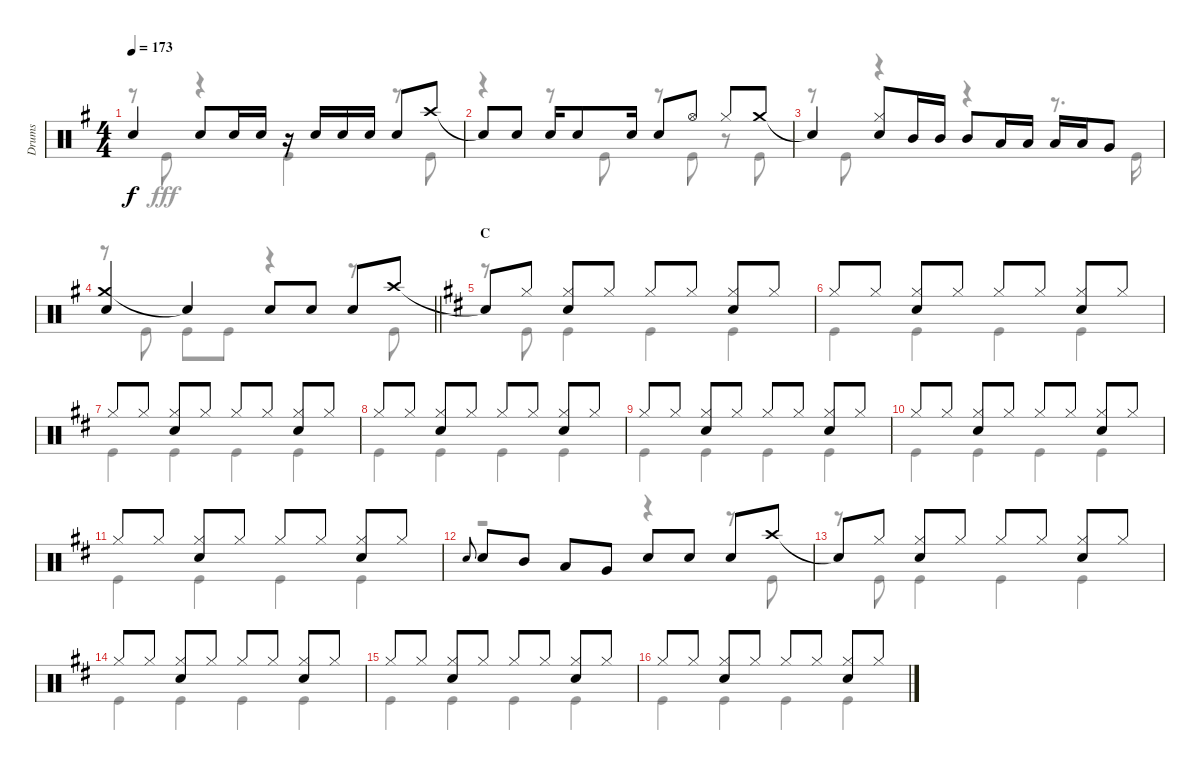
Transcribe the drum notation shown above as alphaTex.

\track ("Drums" "Drums") {instrument percussion}
\staff {score}
\articulation defaults
\voice
\ts (4 4)
\tempo 173
\clef neutral
\ks g "Snare (hit)"{t}.4{dy f} "Snare (hit) 2".8 "Snare (hit) 2".16 "Snare (hit) 2".16
r.16 "Snare (hit) 2".16 "Snare (hit) 2".16 "Snare (hit) 2".16 "Snare (hit) 2".8 "Crash high (hit)".8 |
"Snare (hit)"{t}.8 "Snare (hit) 2".8 "Snare (hit) 2".16 "Snare (hit) 2".8 "Snare (hit) 2".16 "Snare (hit) 2".8 "Hi-Hat (open)".8 "Hi-Hat (closed)".8 "Crash medium (hit)".8 |
"Snare (hit)"{t}.4 ("Hi-Hat (closed)" "Snare (hit) 2").8 "Mid Tom (hit)".16 "Mid Tom (hit)".16 "Mid Tom (hit)".8 "Low Tom (hit)".16 "Low Tom (hit)".16 "Low Tom (hit)".16 "Low Tom (hit)".16 "Very Low Tom (hit)".8 |
\barLineRight lightlight
("Crash medium (hit)" "Snare (hit) 2").4 "Snare (hit)"{t}.4 "Snare (hit) 2".8 "Snare (hit) 2".8 "Snare (hit) 2".8 "Crash high (hit)".8 |
\section ("" "C")
\ks d "Snare (hit)"{t}.8 "Hi-Hat (closed)".8
("Hi-Hat (closed)" "Snare (hit) 2").8 "Hi-Hat (closed)".8 "Hi-Hat (closed)".8 "Hi-Hat (closed)".8 ("Hi-Hat (closed)" "Snare (hit) 2").8 "Hi-Hat (closed)".8 |
"Hi-Hat (closed)".8 "Hi-Hat (closed)".8 ("Hi-Hat (closed)" "Snare (hit) 2").8 "Hi-Hat (closed)".8 "Hi-Hat (closed)".8 "Hi-Hat (closed)".8 ("Hi-Hat (closed)" "Snare (hit) 2").8 "Hi-Hat (closed)".8 |
"Hi-Hat (closed)".8 "Hi-Hat (closed)".8 ("Hi-Hat (closed)" "Snare (hit) 2").8 "Hi-Hat (closed)".8 "Hi-Hat (closed)".8 "Hi-Hat (closed)".8 ("Hi-Hat (closed)" "Snare (hit) 2").8 "Hi-Hat (closed)".8 |
"Hi-Hat (closed)".8 "Hi-Hat (closed)".8 ("Hi-Hat (closed)" "Snare (hit) 2").8 "Hi-Hat (closed)".8 "Hi-Hat (closed)".8 "Hi-Hat (closed)".8 ("Hi-Hat (closed)" "Snare (hit) 2").8 "Hi-Hat (closed)".8 |
"Hi-Hat (closed)".8 "Hi-Hat (closed)".8 ("Hi-Hat (closed)" "Snare (hit) 2").8 "Hi-Hat (closed)".8 "Hi-Hat (closed)".8 "Hi-Hat (closed)".8 ("Hi-Hat (closed)" "Snare (hit) 2").8 "Hi-Hat (closed)".8 |
"Hi-Hat (closed)".8 "Hi-Hat (closed)".8 ("Hi-Hat (closed)" "Snare (hit) 2").8 "Hi-Hat (closed)".8 "Hi-Hat (closed)".8 "Hi-Hat (closed)".8 ("Hi-Hat (closed)" "Snare (hit) 2").8 "Hi-Hat (closed)".8 |
"Hi-Hat (closed)".8 "Hi-Hat (closed)".8 ("Hi-Hat (closed)" "Snare (hit) 2").8 "Hi-Hat (closed)".8 "Hi-Hat (closed)".8 "Hi-Hat (closed)".8 ("Hi-Hat (closed)" "Snare (hit) 2").8 "Hi-Hat (closed)".8 |
"Snare (hit) 2".8{gr onbeat} "Snare (hit) 2".8 "Mid Tom (hit)".8 "Low Tom (hit)".8 "Very Low Tom (hit)".8 "Snare (hit) 2".8 "Snare (hit) 2".8 "Snare (hit) 2".8 "Crash high (hit)".8 |
"Snare (hit)"{t}.8 "Hi-Hat (closed)".8 ("Hi-Hat (closed)" "Snare (hit) 2").8 "Hi-Hat (closed)".8 "Hi-Hat (closed)".8 "Hi-Hat (closed)".8 ("Hi-Hat (closed)" "Snare (hit) 2").8 "Hi-Hat (closed)".8 |
"Hi-Hat (closed)".8 "Hi-Hat (closed)".8 ("Hi-Hat (closed)" "Snare (hit) 2").8 "Hi-Hat (closed)".8 "Hi-Hat (closed)".8 "Hi-Hat (closed)".8 ("Hi-Hat (closed)" "Snare (hit) 2").8 "Hi-Hat (closed)".8 |
"Hi-Hat (closed)".8 "Hi-Hat (closed)".8 ("Hi-Hat (closed)" "Snare (hit) 2").8 "Hi-Hat (closed)".8 "Hi-Hat (closed)".8 "Hi-Hat (closed)".8 ("Hi-Hat (closed)" "Snare (hit) 2").8 "Hi-Hat (closed)".8 |
"Hi-Hat (closed)".8 "Hi-Hat (closed)".8 ("Hi-Hat (closed)" "Snare (hit) 2").8 "Hi-Hat (closed)".8 "Hi-Hat (closed)".8 "Hi-Hat (closed)".8 ("Hi-Hat (closed)" "Snare (hit) 2").8 "Hi-Hat (closed)".8
\voice
\clef neutral
\ottava regular
\simile none
\ks g
r.8{dy fff} "Kick (hit)".8 r.4 "Kick (hit)".4 r.8 "Kick (hit)".8 |
r.4 r.8 "Kick (hit)".8 r.8 "Kick (hit)".8 r.8 "Kick (hit)".8 |
r.8 "Kick (hit)".8 r.4 r.4 r.8{d} "Kick (hit)".16 |
\barLineRight lightlight
r.8 "Kick (hit)".8 "Kick (hit)".8 "Kick (hit)".8 r.4 r.8 "Kick (hit)".8 |
\ks d
r.8 "Kick (hit)".8 "Kick (hit)".4 "Kick (hit)".4 "Kick (hit)".4 |
"Kick (hit)".4 "Kick (hit)".4 "Kick (hit)".4 "Kick (hit)".4 |
"Kick (hit)".4 "Kick (hit)".4 "Kick (hit)".4 "Kick (hit)".4 |
"Kick (hit)".4 "Kick (hit)".4 "Kick (hit)".4 "Kick (hit)".4 |
"Kick (hit)".4 "Kick (hit)".4 "Kick (hit)".4 "Kick (hit)".4 |
"Kick (hit)".4 "Kick (hit)".4 "Kick (hit)".4 "Kick (hit)".4 |
"Kick (hit)".4 "Kick (hit)".4 "Kick (hit)".4 "Kick (hit)".4 |
r.2 r.4 r.8 "Kick (hit)".8 |
r.8 "Kick (hit)".8 "Kick (hit)".4 "Kick (hit)".4 "Kick (hit)".4 |
"Kick (hit)".4 "Kick (hit)".4 "Kick (hit)".4 "Kick (hit)".4 |
"Kick (hit)".4 "Kick (hit)".4 "Kick (hit)".4 "Kick (hit)".4 |
"Kick (hit)".4 "Kick (hit)".4 "Kick (hit)".4 "Kick (hit)".4
